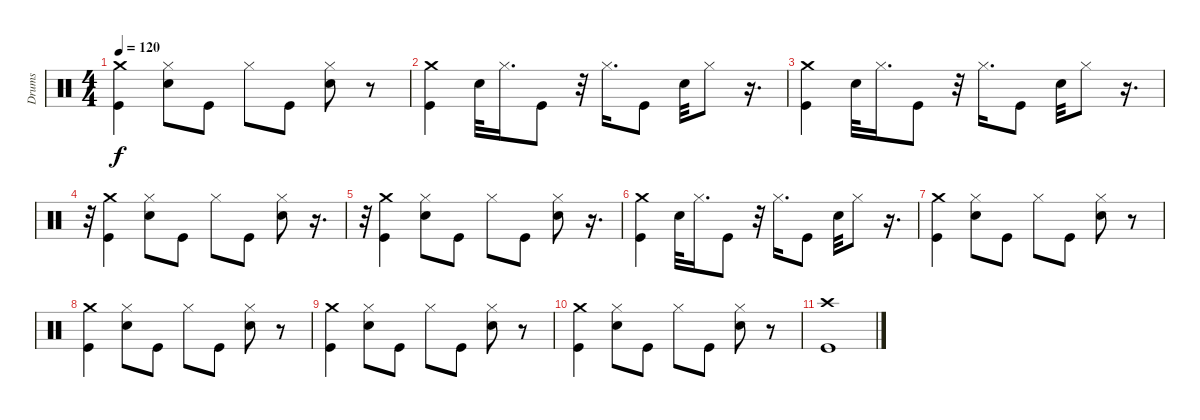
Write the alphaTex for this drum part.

\track ("Drums" "Drums") {instrument percussion}
\staff {score}
\articulation defaults
\ts (4 4)
\tempo 120
\clef neutral
\ks c
("Crash medium (hit)" "Kick (hit)").4{dy f} ("Electric Snare (hit)" "Hi-Hat (closed)").8 "Kick (hit)".8 "Hi-Hat (closed)".8 "Kick (hit)".8 ("Electric Snare (hit)" "Hi-Hat (closed)").8 r.8 |
("Crash medium (hit)" "Kick (hit)").4 "Electric Snare (hit)".32 "Hi-Hat (closed)".16{d} "Kick (hit)".8 r.32 "Hi-Hat (closed)".16{d} "Kick (hit)".8 "Electric Snare (hit)".32 "Hi-Hat (closed)".8 r.16{d} |
("Crash medium (hit)" "Kick (hit)").4 "Electric Snare (hit)".32 "Hi-Hat (closed)".16{d} "Kick (hit)".8 r.32 "Hi-Hat (closed)".16{d} "Kick (hit)".8 "Electric Snare (hit)".32 "Hi-Hat (closed)".8 r.16{d} |
r.32 ("Crash medium (hit)" "Kick (hit)").4 ("Electric Snare (hit)" "Hi-Hat (closed)").8 "Kick (hit)".8 "Hi-Hat (closed)".8 "Kick (hit)".8 ("Electric Snare (hit)" "Hi-Hat (closed)").8 r.16{d} |
r.32 ("Crash medium (hit)" "Kick (hit)").4 ("Electric Snare (hit)" "Hi-Hat (closed)").8 "Kick (hit)".8 "Hi-Hat (closed)".8 "Kick (hit)".8 ("Electric Snare (hit)" "Hi-Hat (closed)").8 r.16{d} |
("Crash medium (hit)" "Kick (hit)").4 "Electric Snare (hit)".32 "Hi-Hat (closed)".16{d} "Kick (hit)".8 r.32 "Hi-Hat (closed)".16{d} "Kick (hit)".8 "Electric Snare (hit)".32 "Hi-Hat (closed)".8 r.16{d} |
("Crash medium (hit)" "Kick (hit)").4 ("Electric Snare (hit)" "Hi-Hat (closed)").8 "Kick (hit)".8 "Hi-Hat (closed)".8 "Kick (hit)".8 ("Electric Snare (hit)" "Hi-Hat (closed)").8 r.8 |
("Crash medium (hit)" "Kick (hit)").4 ("Electric Snare (hit)" "Hi-Hat (closed)").8 "Kick (hit)".8 "Hi-Hat (closed)".8 "Kick (hit)".8 ("Electric Snare (hit)" "Hi-Hat (closed)").8 r.8 |
("Crash medium (hit)" "Kick (hit)").4 ("Electric Snare (hit)" "Hi-Hat (closed)").8 "Kick (hit)".8 "Hi-Hat (closed)".8 "Kick (hit)".8 ("Electric Snare (hit)" "Hi-Hat (closed)").8 r.8 |
("Crash medium (hit)" "Kick (hit)").4 ("Electric Snare (hit)" "Hi-Hat (closed)").8 "Kick (hit)".8 "Hi-Hat (closed)".8 "Kick (hit)".8 ("Electric Snare (hit)" "Hi-Hat (closed)").8 r.8 |
("Kick (hit)" "Crash high (hit)").1
